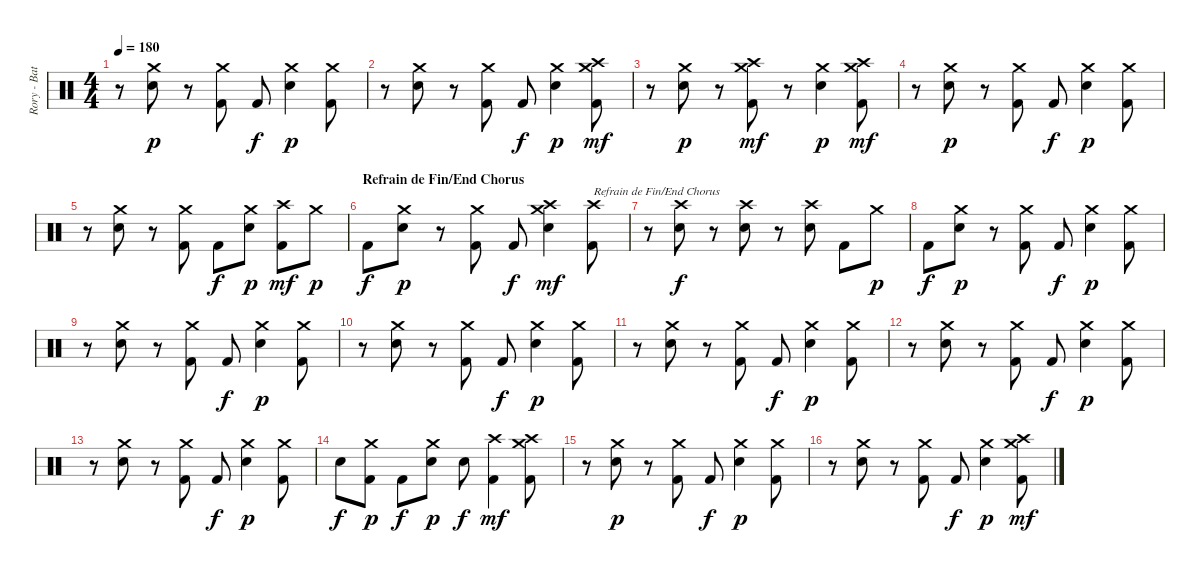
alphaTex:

\track ("Rory - Batterie/Drums" "Rory - Bat") {instrument percussion}
\staff {score}
\articulation defaults
\ts (4 4)
\tempo 180
\clef neutral
\ks c
r.8{dy mf} ("Crash medium (hit)" "Electric Snare (hit)").8{dy p} r.8 ("Crash medium (hit)" "Kick (hit) 2").8 "Kick (hit) 2".8{dy f} ("Crash medium (hit)" "Electric Snare (hit)").4{dy p} ("Crash medium (hit)" "Kick (hit) 2").8 |
r.8 ("Crash medium (hit)" "Electric Snare (hit)").8 r.8 ("Crash medium (hit)" "Kick (hit) 2").8 "Kick (hit) 2".8{dy f} ("Crash medium (hit)" "Electric Snare (hit)").4{dy p} ("Crash medium (hit)" "Crash high (hit)" "Kick (hit) 2").8{dy mf} |
r.8 ("Crash medium (hit)" "Electric Snare (hit)").8{dy p} r.8 ("Crash medium (hit)" "Crash high (hit)" "Kick (hit) 2").8{dy mf} r.8 ("Crash medium (hit)" "Electric Snare (hit)").4{dy p} ("Crash medium (hit)" "Crash high (hit)" "Kick (hit) 2").8{dy mf} |
r.8 ("Crash medium (hit)" "Electric Snare (hit)").8{dy p} r.8 ("Crash medium (hit)" "Kick (hit) 2").8 "Kick (hit) 2".8{dy f} ("Crash medium (hit)" "Electric Snare (hit)").4{dy p} ("Crash medium (hit)" "Kick (hit) 2").8 |
r.8 ("Crash medium (hit)" "Electric Snare (hit)").8 r.8 ("Crash medium (hit)" "Kick (hit) 2").8 "Kick (hit) 2".8{dy f} ("Crash medium (hit)" "Electric Snare (hit)").8{dy p} ("Crash high (hit)" "Kick (hit) 2").8{dy mf} "Crash medium (hit)".8{dy p} |
\section ("" "Refrain de Fin/End Chorus")
"Kick (hit) 2".8{dy f} ("Crash medium (hit)" "Electric Snare (hit)").8{dy p} r.8 ("Crash medium (hit)" "Kick (hit) 2").8 "Kick (hit) 2".8{dy f} ("Crash medium (hit)" "Crash high (hit)" "Electric Snare (hit)").4{dy mf} ("Crash high (hit)" "Kick (hit) 2").8{txt "Refrain de Fin/End Chorus"} |
r.8 ("Crash high (hit)" "Electric Snare (hit)").8{dy f} r.8 ("Crash high (hit)" "Electric Snare (hit)").8 r.8 ("Crash high (hit)" "Electric Snare (hit)").8 "Kick (hit) 2".8 "Crash medium (hit)".8{dy p} |
"Kick (hit) 2".8{dy f} ("Crash medium (hit)" "Electric Snare (hit)").8{dy p} r.8 ("Crash medium (hit)" "Kick (hit) 2").8 "Kick (hit) 2".8{dy f} ("Crash medium (hit)" "Electric Snare (hit)").4{dy p} ("Crash medium (hit)" "Kick (hit) 2").8 |
r.8 ("Crash medium (hit)" "Electric Snare (hit)").8 r.8 ("Crash medium (hit)" "Kick (hit) 2").8 "Kick (hit) 2".8{dy f} ("Crash medium (hit)" "Electric Snare (hit)").4{dy p} ("Crash medium (hit)" "Kick (hit) 2").8 |
r.8 ("Crash medium (hit)" "Electric Snare (hit)").8 r.8 ("Crash medium (hit)" "Kick (hit) 2").8 "Kick (hit) 2".8{dy f} ("Crash medium (hit)" "Electric Snare (hit)").4{dy p} ("Crash medium (hit)" "Kick (hit) 2").8 |
r.8 ("Crash medium (hit)" "Electric Snare (hit)").8 r.8 ("Crash medium (hit)" "Kick (hit) 2").8 "Kick (hit) 2".8{dy f} ("Crash medium (hit)" "Electric Snare (hit)").4{dy p} ("Crash medium (hit)" "Kick (hit) 2").8 |
r.8 ("Crash medium (hit)" "Electric Snare (hit)").8 r.8 ("Crash medium (hit)" "Kick (hit) 2").8 "Kick (hit) 2".8{dy f} ("Crash medium (hit)" "Electric Snare (hit)").4{dy p} ("Crash medium (hit)" "Kick (hit) 2").8 |
r.8 ("Crash medium (hit)" "Electric Snare (hit)").8 r.8 ("Crash medium (hit)" "Kick (hit) 2").8 "Kick (hit) 2".8{dy f} ("Crash medium (hit)" "Electric Snare (hit)").4{dy p} ("Crash medium (hit)" "Kick (hit) 2").8 |
"Electric Snare (hit)".8{dy f} ("Crash medium (hit)" "Kick (hit) 2").8{dy p} "Kick (hit) 2".8{dy f} ("Crash medium (hit)" "Electric Snare (hit)").8{dy p} "Electric Snare (hit)".8{dy f} ("Crash high (hit)" "Kick (hit) 2").4{dy mf} ("Crash medium (hit)" "Crash high (hit)" "Kick (hit) 2").8 |
r.8 ("Crash medium (hit)" "Electric Snare (hit)").8{dy p} r.8 ("Crash medium (hit)" "Kick (hit) 2").8 "Kick (hit) 2".8{dy f} ("Crash medium (hit)" "Electric Snare (hit)").4{dy p} ("Crash medium (hit)" "Kick (hit) 2").8 |
r.8 ("Crash medium (hit)" "Electric Snare (hit)").8 r.8 ("Crash medium (hit)" "Kick (hit) 2").8 "Kick (hit) 2".8{dy f} ("Crash medium (hit)" "Electric Snare (hit)").4{dy p} ("Crash medium (hit)" "Crash high (hit)" "Kick (hit) 2").8{dy mf}
